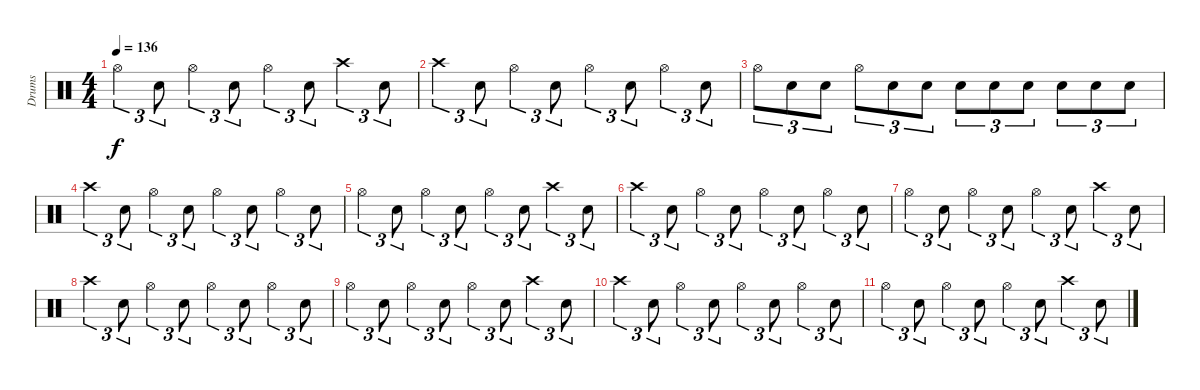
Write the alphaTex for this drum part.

\track ("Drums" "Drums") {instrument percussion}
\staff {score}
\articulation defaults
\ts (4 4)
\tempo 136
\clef neutral
\ks c "Hi-Hat (open)".4{tu (3 2) dy f} "Snare (hit) 2".8{tu (3 2)} "Hi-Hat (open)".4{tu (3 2)} "Snare (hit) 2".8{tu (3 2)} "Hi-Hat (open)".4{tu (3 2)} "Snare (hit) 2".8{tu (3 2)} "Crash high (hit)".4{tu (3 2)} "Snare (hit) 2".8{tu (3 2)}
|
"Crash high (hit)".4{tu (3 2)} "Snare (hit) 2".8{tu (3 2)} "Hi-Hat (open)".4{tu (3 2)} "Snare (hit) 2".8{tu (3 2)} "Hi-Hat (open)".4{tu (3 2)} "Snare (hit) 2".8{tu (3 2)} "Hi-Hat (open)".4{tu (3 2)} "Snare (hit) 2".8{tu (3 2)} |
"Hi-Hat (open)".8{tu (3 2)} "Snare (hit) 2".8{tu (3 2)} "Snare (hit) 2".8{tu (3 2)} "Hi-Hat (open)".8{tu (3 2)} "Snare (hit) 2".8{tu (3 2)} "Snare (hit) 2".8{tu (3 2)} "Snare (hit) 2".8{tu (3 2)} "Snare (hit) 2".8{tu (3 2)} "Snare (hit) 2".8{tu (3 2)} "Snare (hit) 2".8{tu (3 2)} "Snare (hit) 2".8{tu (3 2)} "Snare (hit) 2".8{tu (3 2)} |
"Crash high (hit)".4{tu (3 2)} "Snare (hit) 2".8{tu (3 2)} "Hi-Hat (open)".4{tu (3 2)} "Snare (hit) 2".8{tu (3 2)} "Hi-Hat (open)".4{tu (3 2)} "Snare (hit) 2".8{tu (3 2)} "Hi-Hat (open)".4{tu (3 2)} "Snare (hit) 2".8{tu (3 2)} |
"Hi-Hat (open)".4{tu (3 2)} "Snare (hit) 2".8{tu (3 2)} "Hi-Hat (open)".4{tu (3 2)} "Snare (hit) 2".8{tu (3 2)} "Hi-Hat (open)".4{tu (3 2)} "Snare (hit) 2".8{tu (3 2)} "Crash high (hit)".4{tu (3 2)} "Snare (hit) 2".8{tu (3 2)} |
"Crash high (hit)".4{tu (3 2)} "Snare (hit) 2".8{tu (3 2)} "Hi-Hat (open)".4{tu (3 2)} "Snare (hit) 2".8{tu (3 2)} "Hi-Hat (open)".4{tu (3 2)} "Snare (hit) 2".8{tu (3 2)} "Hi-Hat (open)".4{tu (3 2)} "Snare (hit) 2".8{tu (3 2)} |
"Hi-Hat (open)".4{tu (3 2)} "Snare (hit) 2".8{tu (3 2)} "Hi-Hat (open)".4{tu (3 2)} "Snare (hit) 2".8{tu (3 2)} "Hi-Hat (open)".4{tu (3 2)} "Snare (hit) 2".8{tu (3 2)} "Crash high (hit)".4{tu (3 2)} "Snare (hit) 2".8{tu (3 2)} |
"Crash high (hit)".4{tu (3 2)} "Snare (hit) 2".8{tu (3 2)} "Hi-Hat (open)".4{tu (3 2)} "Snare (hit) 2".8{tu (3 2)} "Hi-Hat (open)".4{tu (3 2)} "Snare (hit) 2".8{tu (3 2)} "Hi-Hat (open)".4{tu (3 2)} "Snare (hit) 2".8{tu (3 2)} |
"Hi-Hat (open)".4{tu (3 2)} "Snare (hit) 2".8{tu (3 2)} "Hi-Hat (open)".4{tu (3 2)} "Snare (hit) 2".8{tu (3 2)} "Hi-Hat (open)".4{tu (3 2)} "Snare (hit) 2".8{tu (3 2)} "Crash high (hit)".4{tu (3 2)} "Snare (hit) 2".8{tu (3 2)} |
"Crash high (hit)".4{tu (3 2) volume 0} "Snare (hit) 2".8{tu (3 2)} "Hi-Hat (open)".4{tu (3 2)} "Snare (hit) 2".8{tu (3 2)} "Hi-Hat (open)".4{tu (3 2)} "Snare (hit) 2".8{tu (3 2)} "Hi-Hat (open)".4{tu (3 2)} "Snare (hit) 2".8{tu (3 2)} |
"Hi-Hat (open)".4{tu (3 2)} "Snare (hit) 2".8{tu (3 2)} "Hi-Hat (open)".4{tu (3 2)} "Snare (hit) 2".8{tu (3 2)} "Hi-Hat (open)".4{tu (3 2)} "Snare (hit) 2".8{tu (3 2)} "Crash high (hit)".4{tu (3 2)} "Snare (hit) 2".8{tu (3 2)}
